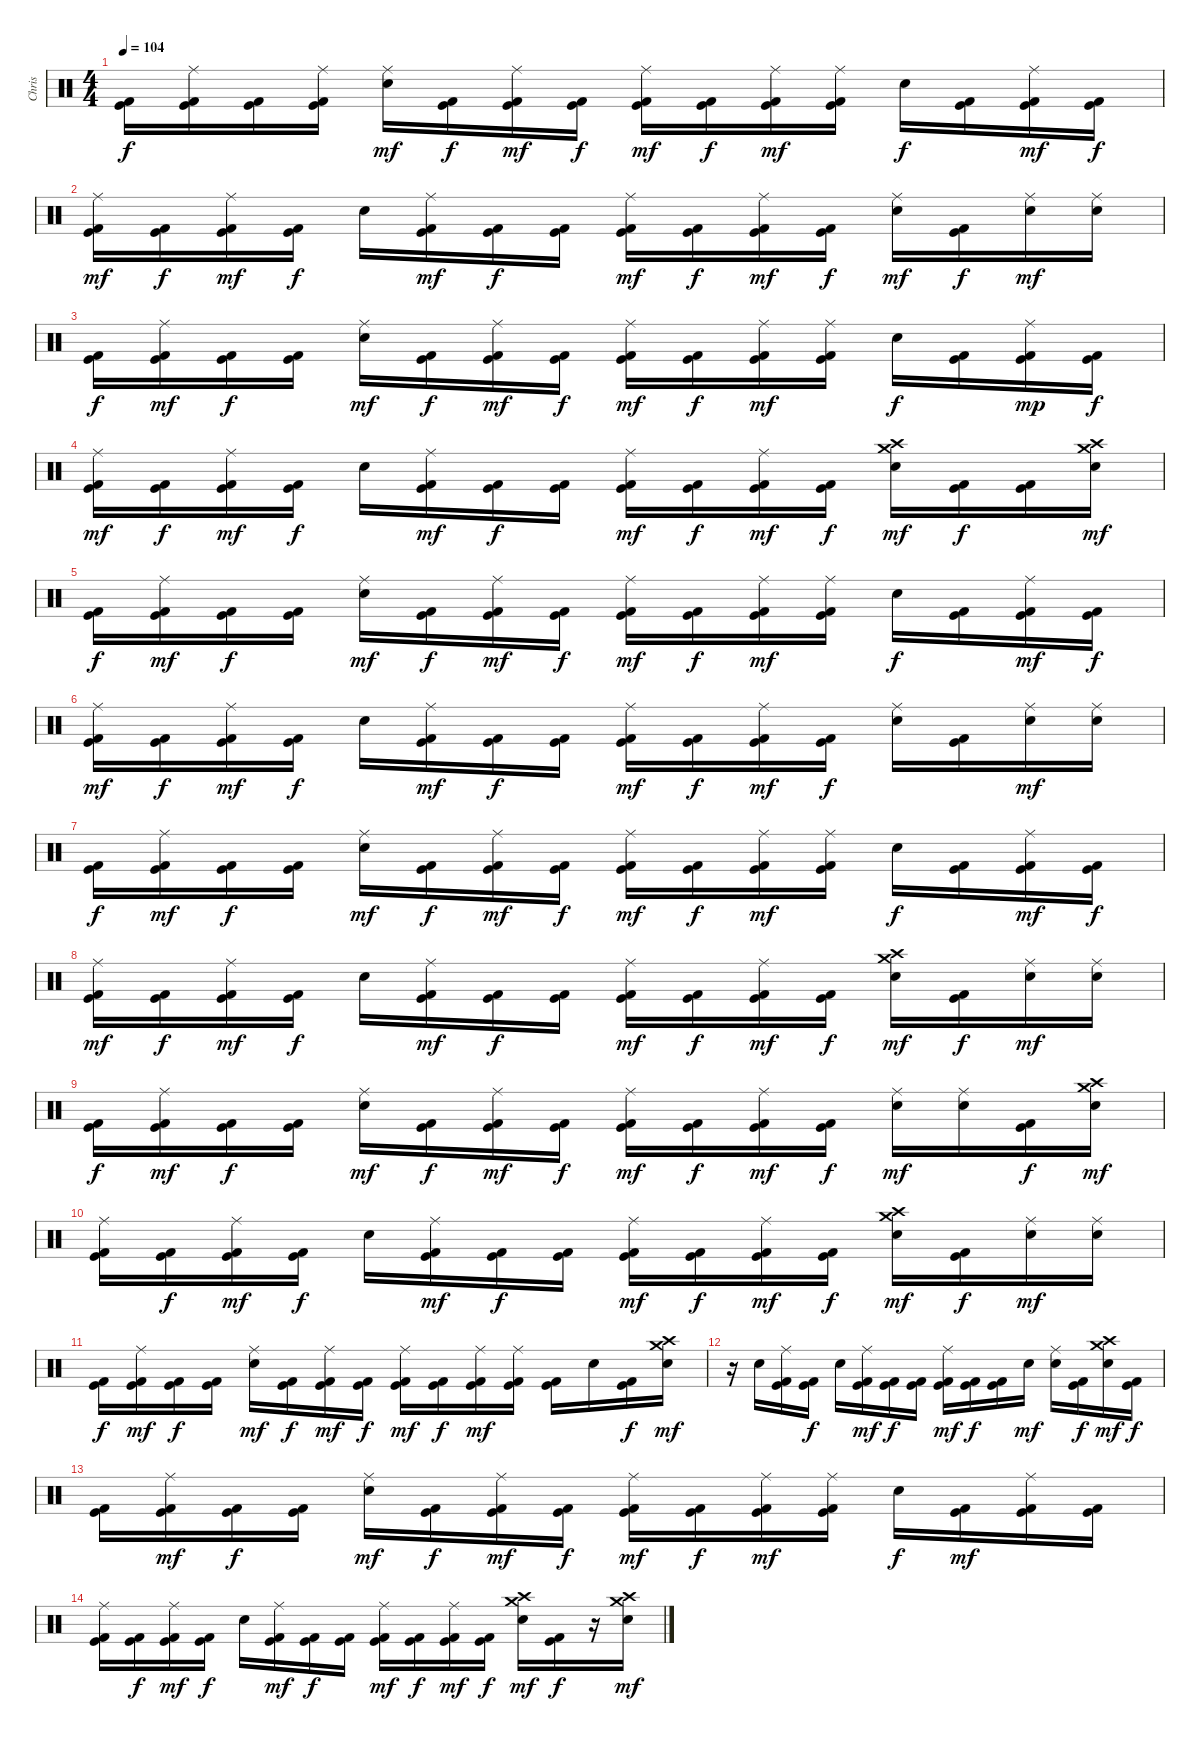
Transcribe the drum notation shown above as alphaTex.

\track ("Chris" "Chris") {instrument percussion}
\staff {score}
\articulation defaults
\ts (4 4)
\tempo 104
\clef neutral
\ks c
("Kick (hit)" "Kick (hit) 2").16{dy f} ("Ride (middle)" "Kick (hit)" "Kick (hit) 2").16 ("Kick (hit)" "Kick (hit) 2").16 ("Ride (middle)" "Kick (hit)" "Kick (hit) 2").16 ("Ride (middle)" "Electric Snare (hit)").16{dy mf} ("Kick (hit)" "Kick (hit) 2").16{dy f} ("Ride (middle)" "Kick (hit)" "Kick (hit) 2").16{dy mf} ("Kick (hit)" "Kick (hit) 2").16{dy f} ("Ride (middle)" "Kick (hit)" "Kick (hit) 2").16{dy mf} ("Kick (hit)" "Kick (hit) 2").16{dy f} ("Ride (middle)" "Kick (hit)" "Kick (hit) 2").16{dy mf} ("Ride (middle)" "Kick (hit)" "Kick (hit) 2").16 "Electric Snare (hit)".16{dy f} ("Kick (hit)" "Kick (hit) 2").16 ("Ride (middle)" "Kick (hit)" "Kick (hit) 2").16{dy mf} ("Kick (hit)" "Kick (hit) 2").16{dy f} |
("Ride (middle)" "Kick (hit)" "Kick (hit) 2").16{dy mf} ("Kick (hit)" "Kick (hit) 2").16{dy f} ("Ride (middle)" "Kick (hit)" "Kick (hit) 2").16{dy mf} ("Kick (hit)" "Kick (hit) 2").16{dy f} "Electric Snare (hit)".16 ("Ride (middle)" "Kick (hit)" "Kick (hit) 2").16{dy mf} ("Kick (hit)" "Kick (hit) 2").16{dy f} ("Kick (hit)" "Kick (hit) 2").16 ("Ride (middle)" "Kick (hit)" "Kick (hit) 2").16{dy mf} ("Kick (hit)" "Kick (hit) 2").16{dy f} ("Ride (middle)" "Kick (hit)" "Kick (hit) 2").16{dy mf} ("Kick (hit)" "Kick (hit) 2").16{dy f} ("Ride (middle)" "Electric Snare (hit)").16{dy mf} ("Kick (hit)" "Kick (hit) 2").16{dy f} ("Ride (middle)" "Electric Snare (hit)").16{dy mf} ("Ride (middle)" "Electric Snare (hit)").16 |
("Kick (hit)" "Kick (hit) 2").16{dy f} ("Ride (middle)" "Kick (hit)" "Kick (hit) 2").16{dy mf} ("Kick (hit)" "Kick (hit) 2").16{dy f} ("Kick (hit)" "Kick (hit) 2").16 ("Ride (middle)" "Electric Snare (hit)").16{dy mf} ("Kick (hit)" "Kick (hit) 2").16{dy f} ("Ride (middle)" "Kick (hit)" "Kick (hit) 2").16{dy mf} ("Kick (hit)" "Kick (hit) 2").16{dy f} ("Ride (middle)" "Kick (hit)" "Kick (hit) 2").16{dy mf} ("Kick (hit)" "Kick (hit) 2").16{dy f} ("Ride (middle)" "Kick (hit)" "Kick (hit) 2").16{dy mf} ("Ride (middle)" "Kick (hit)" "Kick (hit) 2").16 "Electric Snare (hit)".16{dy f} ("Kick (hit)" "Kick (hit) 2").16 ("Ride (middle)" "Kick (hit)" "Kick (hit) 2").16{dy mp} ("Kick (hit)" "Kick (hit) 2").16{dy f} |
("Ride (middle)" "Kick (hit)" "Kick (hit) 2").16{dy mf} ("Kick (hit)" "Kick (hit) 2").16{dy f} ("Ride (middle)" "Kick (hit)" "Kick (hit) 2").16{dy mf} ("Kick (hit)" "Kick (hit) 2").16{dy f} "Electric Snare (hit)".16 ("Ride (middle)" "Kick (hit)" "Kick (hit) 2").16{dy mf} ("Kick (hit)" "Kick (hit) 2").16{dy f} ("Kick (hit)" "Kick (hit) 2").16 ("Ride (middle)" "Kick (hit)" "Kick (hit) 2").16{dy mf} ("Kick (hit)" "Kick (hit) 2").16{dy f} ("Ride (middle)" "Kick (hit)" "Kick (hit) 2").16{dy mf} ("Kick (hit)" "Kick (hit) 2").16{dy f} ("Crash medium (hit)" "Crash high (hit)" "Electric Snare (hit)").16{dy mf} ("Kick (hit)" "Kick (hit) 2").16{dy f} ("Kick (hit)" "Kick (hit) 2").16 ("Crash medium (hit)" "Crash high (hit)" "Electric Snare (hit)").16{dy mf} |
("Kick (hit)" "Kick (hit) 2").16{dy f} ("Ride (middle)" "Kick (hit)" "Kick (hit) 2").16{dy mf} ("Kick (hit)" "Kick (hit) 2").16{dy f} ("Kick (hit)" "Kick (hit) 2").16 ("Ride (middle)" "Electric Snare (hit)").16{dy mf} ("Kick (hit)" "Kick (hit) 2").16{dy f} ("Ride (middle)" "Kick (hit)" "Kick (hit) 2").16{dy mf} ("Kick (hit)" "Kick (hit) 2").16{dy f} ("Ride (middle)" "Kick (hit)" "Kick (hit) 2").16{dy mf} ("Kick (hit)" "Kick (hit) 2").16{dy f} ("Ride (middle)" "Kick (hit)" "Kick (hit) 2").16{dy mf} ("Ride (middle)" "Kick (hit)" "Kick (hit) 2").16 "Electric Snare (hit)".16{dy f} ("Kick (hit)" "Kick (hit) 2").16 ("Ride (middle)" "Kick (hit)" "Kick (hit) 2").16{dy mf} ("Kick (hit)" "Kick (hit) 2").16{dy f} |
("Ride (middle)" "Kick (hit)" "Kick (hit) 2").16{dy mf} ("Kick (hit)" "Kick (hit) 2").16{dy f} ("Ride (middle)" "Kick (hit)" "Kick (hit) 2").16{dy mf} ("Kick (hit)" "Kick (hit) 2").16{dy f} "Electric Snare (hit)".16 ("Ride (middle)" "Kick (hit)" "Kick (hit) 2").16{dy mf} ("Kick (hit)" "Kick (hit) 2").16{dy f} ("Kick (hit)" "Kick (hit) 2").16 ("Ride (middle)" "Kick (hit)" "Kick (hit) 2").16{dy mf} ("Kick (hit)" "Kick (hit) 2").16{dy f} ("Ride (middle)" "Kick (hit)" "Kick (hit) 2").16{dy mf} ("Kick (hit)" "Kick (hit) 2").16{dy f} ("Ride (middle)" "Electric Snare (hit)").16 ("Kick (hit)" "Kick (hit) 2").16 ("Ride (middle)" "Electric Snare (hit)").16{dy mf} ("Ride (middle)" "Electric Snare (hit)").16 |
("Kick (hit)" "Kick (hit) 2").16{dy f} ("Ride (middle)" "Kick (hit)" "Kick (hit) 2").16{dy mf} ("Kick (hit)" "Kick (hit) 2").16{dy f} ("Kick (hit)" "Kick (hit) 2").16 ("Ride (middle)" "Electric Snare (hit)").16{dy mf} ("Kick (hit)" "Kick (hit) 2").16{dy f} ("Ride (middle)" "Kick (hit)" "Kick (hit) 2").16{dy mf} ("Kick (hit)" "Kick (hit) 2").16{dy f} ("Ride (middle)" "Kick (hit)" "Kick (hit) 2").16{dy mf} ("Kick (hit)" "Kick (hit) 2").16{dy f} ("Ride (middle)" "Kick (hit)" "Kick (hit) 2").16{dy mf} ("Ride (middle)" "Kick (hit)" "Kick (hit) 2").16 "Electric Snare (hit)".16{dy f} ("Kick (hit)" "Kick (hit) 2").16 ("Ride (middle)" "Kick (hit)" "Kick (hit) 2").16{dy mf} ("Kick (hit)" "Kick (hit) 2").16{dy f} |
("Ride (middle)" "Kick (hit)" "Kick (hit) 2").16{dy mf} ("Kick (hit)" "Kick (hit) 2").16{dy f} ("Ride (middle)" "Kick (hit)" "Kick (hit) 2").16{dy mf} ("Kick (hit)" "Kick (hit) 2").16{dy f} "Electric Snare (hit)".16 ("Ride (middle)" "Kick (hit)" "Kick (hit) 2").16{dy mf} ("Kick (hit)" "Kick (hit) 2").16{dy f} ("Kick (hit)" "Kick (hit) 2").16 ("Ride (middle)" "Kick (hit)" "Kick (hit) 2").16{dy mf} ("Kick (hit)" "Kick (hit) 2").16{dy f} ("Ride (middle)" "Kick (hit)" "Kick (hit) 2").16{dy mf} ("Kick (hit)" "Kick (hit) 2").16{dy f} ("Crash medium (hit)" "Crash high (hit)" "Electric Snare (hit)").16{dy mf} ("Kick (hit)" "Kick (hit) 2").16{dy f} ("Ride (middle)" "Electric Snare (hit)").16{dy mf} ("Ride (middle)" "Electric Snare (hit)").16 |
("Kick (hit)" "Kick (hit) 2").16{dy f} ("Ride (middle)" "Kick (hit)" "Kick (hit) 2").16{dy mf} ("Kick (hit)" "Kick (hit) 2").16{dy f} ("Kick (hit)" "Kick (hit) 2").16 ("Ride (middle)" "Electric Snare (hit)").16{dy mf} ("Kick (hit)" "Kick (hit) 2").16{dy f} ("Ride (middle)" "Kick (hit)" "Kick (hit) 2").16{dy mf} ("Kick (hit)" "Kick (hit) 2").16{dy f} ("Ride (middle)" "Kick (hit)" "Kick (hit) 2").16{dy mf} ("Kick (hit)" "Kick (hit) 2").16{dy f} ("Ride (middle)" "Kick (hit)" "Kick (hit) 2").16{dy mf} ("Kick (hit)" "Kick (hit) 2").16{dy f} ("Ride (middle)" "Electric Snare (hit)").16{dy mf} ("Ride (middle)" "Electric Snare (hit)").16 ("Kick (hit)" "Kick (hit) 2").16{dy f} ("Crash medium (hit)" "Crash high (hit)" "Electric Snare (hit)").16{dy mf} |
("Ride (middle)" "Kick (hit)" "Kick (hit) 2").16 ("Kick (hit)" "Kick (hit) 2").16{dy f} ("Ride (middle)" "Kick (hit)" "Kick (hit) 2").16{dy mf} ("Kick (hit)" "Kick (hit) 2").16{dy f} "Electric Snare (hit)".16 ("Ride (middle)" "Kick (hit)" "Kick (hit) 2").16{dy mf} ("Kick (hit)" "Kick (hit) 2").16{dy f} ("Kick (hit)" "Kick (hit) 2").16 ("Ride (middle)" "Kick (hit)" "Kick (hit) 2").16{dy mf} ("Kick (hit)" "Kick (hit) 2").16{dy f} ("Ride (middle)" "Kick (hit)" "Kick (hit) 2").16{dy mf} ("Kick (hit)" "Kick (hit) 2").16{dy f} ("Crash medium (hit)" "Crash high (hit)" "Electric Snare (hit)").16{dy mf} ("Kick (hit)" "Kick (hit) 2").16{dy f} ("Ride (middle)" "Electric Snare (hit)").16{dy mf} ("Ride (middle)" "Electric Snare (hit)").16 |
("Kick (hit)" "Kick (hit) 2").16{dy f} ("Ride (middle)" "Kick (hit)" "Kick (hit) 2").16{dy mf} ("Kick (hit)" "Kick (hit) 2").16{dy f} ("Kick (hit)" "Kick (hit) 2").16 ("Ride (middle)" "Electric Snare (hit)").16{dy mf} ("Kick (hit)" "Kick (hit) 2").16{dy f} ("Ride (middle)" "Kick (hit)" "Kick (hit) 2").16{dy mf} ("Kick (hit)" "Kick (hit) 2").16{dy f} ("Ride (middle)" "Kick (hit)" "Kick (hit) 2").16{dy mf} ("Kick (hit)" "Kick (hit) 2").16{dy f} ("Ride (middle)" "Kick (hit)" "Kick (hit) 2").16{dy mf} ("Ride (middle)" "Kick (hit)" "Kick (hit) 2").16 ("Kick (hit)" "Kick (hit) 2").16 "Electric Snare (hit)".16 ("Kick (hit)" "Kick (hit) 2").16{dy f} ("Crash medium (hit)" "Crash high (hit)" "Electric Snare (hit)").16{dy mf} |
r.16 "Electric Snare (hit)".16 ("Ride (middle)" "Kick (hit)" "Kick (hit) 2").16 ("Kick (hit)" "Kick (hit) 2").16{dy f} "Electric Snare (hit)".16 ("Ride (middle)" "Kick (hit)" "Kick (hit) 2").16{dy mf} ("Kick (hit)" "Kick (hit) 2").16{dy f} ("Kick (hit)" "Kick (hit) 2").16 ("Ride (middle)" "Kick (hit)" "Kick (hit) 2").16{dy mf} ("Kick (hit)" "Kick (hit) 2").16{dy f} ("Kick (hit)" "Kick (hit) 2").16 "Electric Snare (hit)".16{dy mf} ("Ride (middle)" "Electric Snare (hit)").16 ("Kick (hit)" "Kick (hit) 2").16{dy f} ("Crash high (hit)" "Crash medium (hit)" "Electric Snare (hit)").16{dy mf} ("Kick (hit)" "Kick (hit) 2").16{dy f} |
("Kick (hit)" "Kick (hit) 2").16 ("Ride (middle)" "Kick (hit)" "Kick (hit) 2").16{dy mf} ("Kick (hit)" "Kick (hit) 2").16{dy f} ("Kick (hit)" "Kick (hit) 2").16 ("Ride (middle)" "Electric Snare (hit)").16{dy mf} ("Kick (hit)" "Kick (hit) 2").16{dy f} ("Ride (middle)" "Kick (hit)" "Kick (hit) 2").16{dy mf} ("Kick (hit)" "Kick (hit) 2").16{dy f} ("Ride (middle)" "Kick (hit)" "Kick (hit) 2").16{dy mf} ("Kick (hit)" "Kick (hit) 2").16{dy f} ("Ride (middle)" "Kick (hit)" "Kick (hit) 2").16{dy mf} ("Ride (middle)" "Kick (hit)" "Kick (hit) 2").16 "Electric Snare (hit)".16{dy f} ("Kick (hit)" "Kick (hit) 2").16{dy mf} ("Ride (middle)" "Kick (hit)" "Kick (hit) 2").16 ("Kick (hit)" "Kick (hit) 2").16 |
("Ride (middle)" "Kick (hit)" "Kick (hit) 2").16 ("Kick (hit)" "Kick (hit) 2").16{dy f} ("Ride (middle)" "Kick (hit)" "Kick (hit) 2").16{dy mf} ("Kick (hit)" "Kick (hit) 2").16{dy f} "Electric Snare (hit)".16 ("Ride (middle)" "Kick (hit)" "Kick (hit) 2").16{dy mf} ("Kick (hit)" "Kick (hit) 2").16{dy f} ("Kick (hit)" "Kick (hit) 2").16 ("Ride (middle)" "Kick (hit)" "Kick (hit) 2").16{dy mf} ("Kick (hit)" "Kick (hit) 2").16{dy f} ("Ride (middle)" "Kick (hit)" "Kick (hit) 2").16{dy mf} ("Kick (hit)" "Kick (hit) 2").16{dy f} ("Crash medium (hit)" "Crash high (hit)" "Electric Snare (hit)").16{dy mf} ("Kick (hit)" "Kick (hit) 2").16{dy f} r.16 ("Crash medium (hit)" "Crash high (hit)" "Electric Snare (hit)").16{dy mf}
